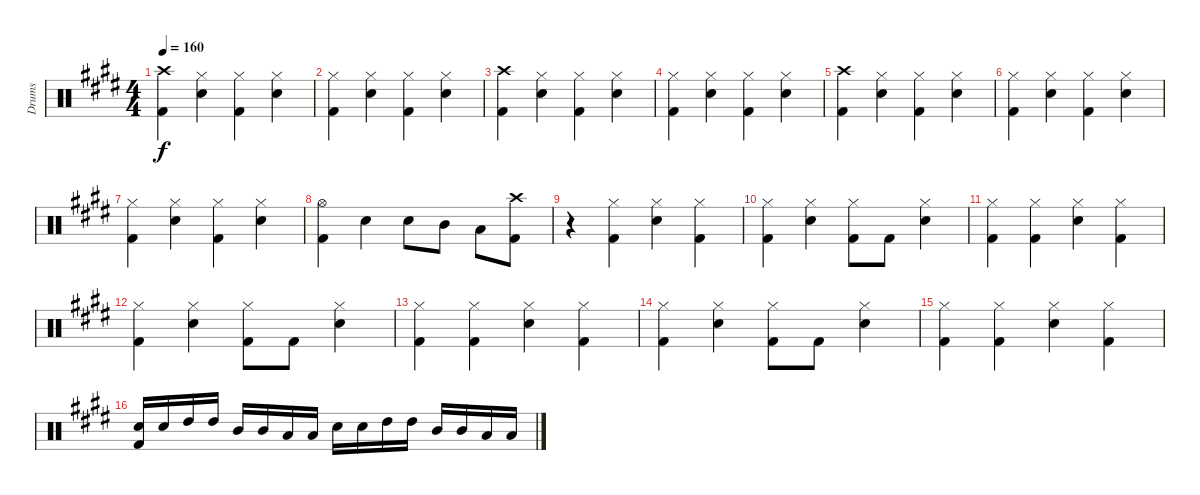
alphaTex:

\track ("Drums" "Drums") {instrument percussion}
\staff {score}
\articulation defaults
\ts (4 4)
\tempo 160
\clef neutral
\ks e
("Crash high (hit)" "Kick (hit) 2").4{dy f} ("Hi-Hat (closed)" "Electric Snare (hit)").4 ("Hi-Hat (closed)" "Kick (hit) 2").4 ("Hi-Hat (closed)" "Electric Snare (hit)").4 |
("Hi-Hat (closed)" "Kick (hit) 2").4 ("Hi-Hat (closed)" "Electric Snare (hit)").4 ("Hi-Hat (closed)" "Kick (hit) 2").4 ("Hi-Hat (closed)" "Electric Snare (hit)").4 |
("Crash high (hit)" "Kick (hit) 2").4 ("Hi-Hat (closed)" "Electric Snare (hit)").4 ("Hi-Hat (closed)" "Kick (hit) 2").4 ("Hi-Hat (closed)" "Electric Snare (hit)").4 |
("Hi-Hat (closed)" "Kick (hit) 2").4 ("Hi-Hat (closed)" "Electric Snare (hit)").4 ("Hi-Hat (closed)" "Kick (hit) 2").4 ("Hi-Hat (closed)" "Electric Snare (hit)").4 |
("Crash high (hit)" "Kick (hit) 2").4 ("Hi-Hat (closed)" "Electric Snare (hit)").4 ("Hi-Hat (closed)" "Kick (hit) 2").4 ("Hi-Hat (closed)" "Electric Snare (hit)").4 |
("Hi-Hat (closed)" "Kick (hit) 2").4 ("Hi-Hat (closed)" "Electric Snare (hit)").4 ("Hi-Hat (closed)" "Kick (hit) 2").4 ("Hi-Hat (closed)" "Electric Snare (hit)").4 |
("Hi-Hat (closed)" "Kick (hit) 2").4 ("Hi-Hat (closed)" "Electric Snare (hit)").4 ("Hi-Hat (closed)" "Kick (hit) 2").4 ("Hi-Hat (closed)" "Electric Snare (hit)").4 |
("Hi-Hat (open)" "Kick (hit) 2").4 "Electric Snare (hit)".4 "Electric Snare (hit)".8 "Mid Tom (hit)".8 "Low Tom (hit)".8 ("Crash high (hit)" "Kick (hit) 2").8 |
r.4 ("Hi-Hat (closed)" "Kick (hit) 2").4 ("Hi-Hat (closed)" "Electric Snare (hit)").4 ("Hi-Hat (closed)" "Kick (hit) 2").4 |
("Hi-Hat (closed)" "Kick (hit) 2").4 ("Hi-Hat (closed)" "Electric Snare (hit)").4 ("Hi-Hat (closed)" "Kick (hit) 2").8 "Kick (hit) 2".8 ("Hi-Hat (closed)" "Electric Snare (hit)").4 |
("Hi-Hat (closed)" "Kick (hit) 2").4 ("Hi-Hat (closed)" "Kick (hit) 2").4 ("Hi-Hat (closed)" "Electric Snare (hit)").4 ("Hi-Hat (closed)" "Kick (hit) 2").4 |
("Hi-Hat (closed)" "Kick (hit) 2").4 ("Hi-Hat (closed)" "Electric Snare (hit)").4 ("Hi-Hat (closed)" "Kick (hit) 2").8 "Kick (hit) 2".8 ("Hi-Hat (closed)" "Electric Snare (hit)").4 |
("Hi-Hat (closed)" "Kick (hit) 2").4 ("Hi-Hat (closed)" "Kick (hit) 2").4 ("Hi-Hat (closed)" "Electric Snare (hit)").4 ("Hi-Hat (closed)" "Kick (hit) 2").4 |
("Hi-Hat (closed)" "Kick (hit) 2").4 ("Hi-Hat (closed)" "Electric Snare (hit)").4 ("Hi-Hat (closed)" "Kick (hit) 2").8 "Kick (hit) 2".8 ("Hi-Hat (closed)" "Electric Snare (hit)").4 |
("Hi-Hat (closed)" "Kick (hit) 2").4 ("Hi-Hat (closed)" "Kick (hit) 2").4 ("Hi-Hat (closed)" "Electric Snare (hit)").4 ("Hi-Hat (closed)" "Kick (hit) 2").4 |
("Electric Snare (hit)" "Kick (hit) 2").16 "Electric Snare (hit)".16 "High Tom (hit)".16 "High Tom (hit)".16 "Mid Tom (hit)".16 "Mid Tom (hit)".16 "Low Tom (hit)".16 "Low Tom (hit)".16 "Electric Snare (hit)".16 "Electric Snare (hit)".16 "High Tom (hit)".16 "High Tom (hit)".16 "Mid Tom (hit)".16 "Mid Tom (hit)".16 "Low Tom (hit)".16 "Low Tom (hit)".16
